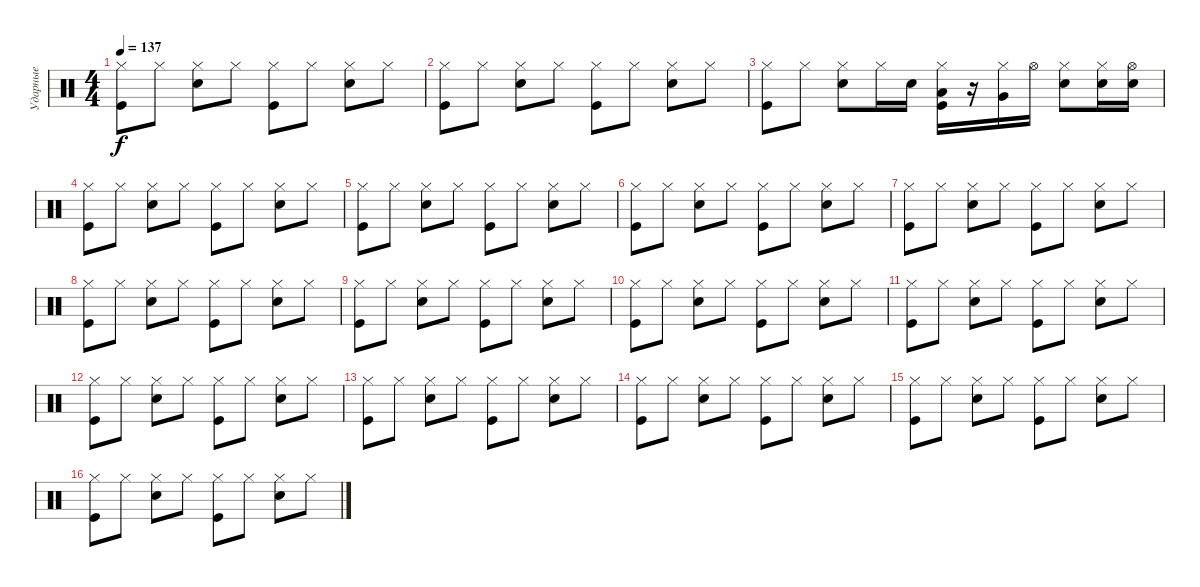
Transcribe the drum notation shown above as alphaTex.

\track ("Ударные" "Ударные") {instrument percussion}
\staff {score}
\articulation defaults
\ts (4 4)
\tempo 137
\clef neutral
\ks c
("Hi-Hat (closed)" "Kick (hit)").8{dy f} "Hi-Hat (closed)".8 ("Hi-Hat (closed)" "Snare (hit) 2").8 "Hi-Hat (closed)".8 ("Hi-Hat (closed)" "Kick (hit)").8 "Hi-Hat (closed)".8 ("Hi-Hat (closed)" "Snare (hit) 2").8 "Hi-Hat (closed)".8 |
("Hi-Hat (closed)" "Kick (hit)").8 "Hi-Hat (closed)".8 ("Hi-Hat (closed)" "Snare (hit) 2").8 "Hi-Hat (closed)".8 ("Hi-Hat (closed)" "Kick (hit)").8 "Hi-Hat (closed)".8 ("Hi-Hat (closed)" "Snare (hit) 2").8 "Hi-Hat (closed)".8 |
("Hi-Hat (closed)" "Kick (hit)").8 "Hi-Hat (closed)".8 ("Hi-Hat (closed)" "Snare (hit) 2").8 "Hi-Hat (closed)".16 "Snare (hit) 2".16 ("Hi-Hat (closed)" "Low Tom (hit)" "Kick (hit)").16 r.16 ("Very Low Tom (hit)" "Hi-Hat (closed)").16 "Hi-Hat (open)".16 ("Hi-Hat (closed)" "Snare (hit) 2").8 ("Hi-Hat (closed)" "Snare (hit) 2").16 ("Hi-Hat (open)" "Snare (hit) 2").16 |
("Hi-Hat (closed)" "Kick (hit)").8 "Hi-Hat (closed)".8 ("Hi-Hat (closed)" "Snare (hit) 2").8 "Hi-Hat (closed)".8 ("Hi-Hat (closed)" "Kick (hit)").8 "Hi-Hat (closed)".8 ("Hi-Hat (closed)" "Snare (hit) 2").8 "Hi-Hat (closed)".8 |
("Hi-Hat (closed)" "Kick (hit)").8 "Hi-Hat (closed)".8 ("Hi-Hat (closed)" "Snare (hit) 2").8 "Hi-Hat (closed)".8 ("Hi-Hat (closed)" "Kick (hit)").8 "Hi-Hat (closed)".8 ("Hi-Hat (closed)" "Snare (hit) 2").8 "Hi-Hat (closed)".8 |
("Hi-Hat (closed)" "Kick (hit)").8 "Hi-Hat (closed)".8 ("Hi-Hat (closed)" "Snare (hit) 2").8 "Hi-Hat (closed)".8 ("Hi-Hat (closed)" "Kick (hit)").8 "Hi-Hat (closed)".8 ("Hi-Hat (closed)" "Snare (hit) 2").8 "Hi-Hat (closed)".8 |
("Hi-Hat (closed)" "Kick (hit)").8 "Hi-Hat (closed)".8 ("Hi-Hat (closed)" "Snare (hit) 2").8 "Hi-Hat (closed)".8 ("Hi-Hat (closed)" "Kick (hit)").8 "Hi-Hat (closed)".8 ("Hi-Hat (closed)" "Snare (hit) 2").8 "Hi-Hat (closed)".8 |
("Hi-Hat (closed)" "Kick (hit)").8 "Hi-Hat (closed)".8 ("Hi-Hat (closed)" "Snare (hit) 2").8 "Hi-Hat (closed)".8 ("Hi-Hat (closed)" "Kick (hit)").8 "Hi-Hat (closed)".8 ("Hi-Hat (closed)" "Snare (hit) 2").8 "Hi-Hat (closed)".8 |
("Hi-Hat (closed)" "Kick (hit)").8 "Hi-Hat (closed)".8 ("Hi-Hat (closed)" "Snare (hit) 2").8 "Hi-Hat (closed)".8 ("Hi-Hat (closed)" "Kick (hit)").8 "Hi-Hat (closed)".8 ("Hi-Hat (closed)" "Snare (hit) 2").8 "Hi-Hat (closed)".8 |
("Hi-Hat (closed)" "Kick (hit)").8 "Hi-Hat (closed)".8 ("Hi-Hat (closed)" "Snare (hit) 2").8 "Hi-Hat (closed)".8 ("Hi-Hat (closed)" "Kick (hit)").8 "Hi-Hat (closed)".8 ("Hi-Hat (closed)" "Snare (hit) 2").8 "Hi-Hat (closed)".8 |
("Hi-Hat (closed)" "Kick (hit)").8 "Hi-Hat (closed)".8 ("Hi-Hat (closed)" "Snare (hit) 2").8 "Hi-Hat (closed)".8 ("Hi-Hat (closed)" "Kick (hit)").8 "Hi-Hat (closed)".8 ("Hi-Hat (closed)" "Snare (hit) 2").8 "Hi-Hat (closed)".8 |
("Hi-Hat (closed)" "Kick (hit)").8 "Hi-Hat (closed)".8 ("Hi-Hat (closed)" "Snare (hit) 2").8 "Hi-Hat (closed)".8 ("Hi-Hat (closed)" "Kick (hit)").8 "Hi-Hat (closed)".8 ("Hi-Hat (closed)" "Snare (hit) 2").8 "Hi-Hat (closed)".8 |
("Hi-Hat (closed)" "Kick (hit)").8 "Hi-Hat (closed)".8 ("Hi-Hat (closed)" "Snare (hit) 2").8 "Hi-Hat (closed)".8 ("Hi-Hat (closed)" "Kick (hit)").8 "Hi-Hat (closed)".8 ("Hi-Hat (closed)" "Snare (hit) 2").8 "Hi-Hat (closed)".8 |
("Hi-Hat (closed)" "Kick (hit)").8 "Hi-Hat (closed)".8 ("Hi-Hat (closed)" "Snare (hit) 2").8 "Hi-Hat (closed)".8 ("Hi-Hat (closed)" "Kick (hit)").8 "Hi-Hat (closed)".8 ("Hi-Hat (closed)" "Snare (hit) 2").8 "Hi-Hat (closed)".8 |
("Hi-Hat (closed)" "Kick (hit)").8 "Hi-Hat (closed)".8 ("Hi-Hat (closed)" "Snare (hit) 2").8 "Hi-Hat (closed)".8 ("Hi-Hat (closed)" "Kick (hit)").8 "Hi-Hat (closed)".8 ("Hi-Hat (closed)" "Snare (hit) 2").8 "Hi-Hat (closed)".8 |
("Hi-Hat (closed)" "Kick (hit)").8 "Hi-Hat (closed)".8 ("Hi-Hat (closed)" "Snare (hit) 2").8 "Hi-Hat (closed)".8 ("Hi-Hat (closed)" "Kick (hit)").8 "Hi-Hat (closed)".8 ("Hi-Hat (closed)" "Snare (hit) 2").8 "Hi-Hat (closed)".8
